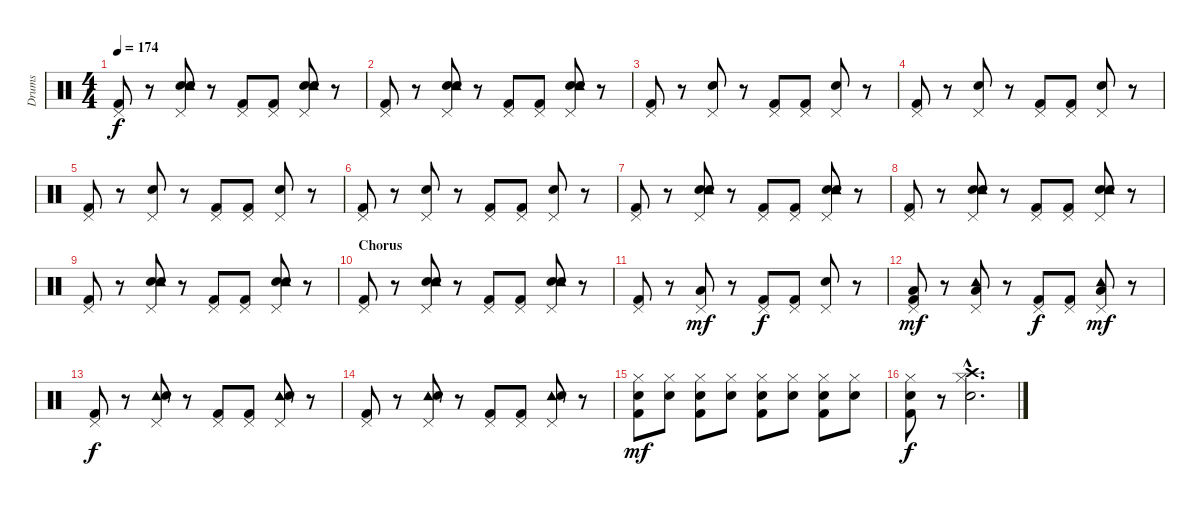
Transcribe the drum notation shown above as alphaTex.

\track ("Drums" "Drums") {instrument percussion}
\staff {score}
\articulation defaults
\ts (4 4)
\tempo 174
\clef neutral
\ks c
("Pedal Hi-Hat (hit)" "Kick (hit) 2").8{dy f} r.8 ("Pedal Hi-Hat (hit)" "Hand Clap (hit)" "Tambourine (hit)" "Snare (hit) 2").8 r.8 ("Pedal Hi-Hat (hit)" "Kick (hit) 2").8 ("Pedal Hi-Hat (hit)" "Kick (hit) 2").8 ("Pedal Hi-Hat (hit)" "Hand Clap (hit)" "Tambourine (hit)" "Snare (hit) 2").8 r.8 |
("Pedal Hi-Hat (hit)" "Kick (hit) 2").8 r.8 ("Pedal Hi-Hat (hit)" "Hand Clap (hit)" "Tambourine (hit)" "Snare (hit) 2").8 r.8 ("Pedal Hi-Hat (hit)" "Kick (hit) 2").8 ("Pedal Hi-Hat (hit)" "Kick (hit) 2").8 ("Pedal Hi-Hat (hit)" "Hand Clap (hit)" "Tambourine (hit)" "Snare (hit) 2").8 r.8 |
("Pedal Hi-Hat (hit)" "Kick (hit) 2").8 r.8 ("Pedal Hi-Hat (hit)" "Snare (hit) 2").8 r.8 ("Pedal Hi-Hat (hit)" "Kick (hit) 2").8 ("Pedal Hi-Hat (hit)" "Kick (hit) 2").8 ("Pedal Hi-Hat (hit)" "Snare (hit) 2").8 r.8 |
("Pedal Hi-Hat (hit)" "Kick (hit) 2").8 r.8 ("Pedal Hi-Hat (hit)" "Snare (hit) 2").8 r.8 ("Pedal Hi-Hat (hit)" "Kick (hit) 2").8 ("Pedal Hi-Hat (hit)" "Kick (hit) 2").8 ("Pedal Hi-Hat (hit)" "Snare (hit) 2").8 r.8 |
("Pedal Hi-Hat (hit)" "Kick (hit) 2").8 r.8 ("Pedal Hi-Hat (hit)" "Snare (hit) 2").8 r.8 ("Pedal Hi-Hat (hit)" "Kick (hit) 2").8 ("Pedal Hi-Hat (hit)" "Kick (hit) 2").8 ("Pedal Hi-Hat (hit)" "Snare (hit) 2").8 r.8 |
("Pedal Hi-Hat (hit)" "Kick (hit) 2").8 r.8 ("Pedal Hi-Hat (hit)" "Snare (hit) 2").8 r.8 ("Pedal Hi-Hat (hit)" "Kick (hit) 2").8 ("Pedal Hi-Hat (hit)" "Kick (hit) 2").8 ("Pedal Hi-Hat (hit)" "Snare (hit) 2").8 r.8 |
("Pedal Hi-Hat (hit)" "Kick (hit) 2").8 r.8 ("Pedal Hi-Hat (hit)" "Hand Clap (hit)" "Tambourine (hit)" "Snare (hit) 2").8 r.8 ("Pedal Hi-Hat (hit)" "Kick (hit) 2").8 ("Pedal Hi-Hat (hit)" "Kick (hit) 2").8 ("Pedal Hi-Hat (hit)" "Hand Clap (hit)" "Tambourine (hit)" "Snare (hit) 2").8 r.8 |
("Pedal Hi-Hat (hit)" "Kick (hit) 2").8 r.8 ("Pedal Hi-Hat (hit)" "Hand Clap (hit)" "Tambourine (hit)" "Snare (hit) 2").8 r.8 ("Pedal Hi-Hat (hit)" "Kick (hit) 2").8 ("Pedal Hi-Hat (hit)" "Kick (hit) 2").8 ("Pedal Hi-Hat (hit)" "Hand Clap (hit)" "Tambourine (hit)" "Snare (hit) 2").8 r.8 |
("Pedal Hi-Hat (hit)" "Kick (hit) 2").8 r.8 ("Pedal Hi-Hat (hit)" "Hand Clap (hit)" "Tambourine (hit)" "Snare (hit) 2").8 r.8 ("Pedal Hi-Hat (hit)" "Kick (hit) 2").8 ("Pedal Hi-Hat (hit)" "Kick (hit) 2").8 ("Pedal Hi-Hat (hit)" "Hand Clap (hit)" "Tambourine (hit)" "Snare (hit) 2").8 r.8 |
\section ("" "Chorus")
("Pedal Hi-Hat (hit)" "Kick (hit) 2").8 r.8 ("Pedal Hi-Hat (hit)" "Hand Clap (hit)" "Tambourine (hit)" "Snare (hit) 2").8 r.8 ("Pedal Hi-Hat (hit)" "Kick (hit) 2").8 ("Pedal Hi-Hat (hit)" "Kick (hit) 2").8 ("Pedal Hi-Hat (hit)" "Hand Clap (hit)" "Tambourine (hit)" "Snare (hit) 2").8 r.8 |
("Pedal Hi-Hat (hit)" "Kick (hit) 2").8 r.8 ("Pedal Hi-Hat (hit)" "Low Floor Tom (hit)").8{dy mf} r.8 ("Pedal Hi-Hat (hit)" "Kick (hit) 2").8{dy f} ("Pedal Hi-Hat (hit)" "Kick (hit) 2").8 ("Pedal Hi-Hat (hit)" "Snare (hit) 2").8 r.8 |
("Pedal Hi-Hat (hit)" "Low Floor Tom (hit)" "Kick (hit) 2").8{dy mf} r.8 ("Pedal Hi-Hat (hit)" "Tambourine (hit)" "Low Floor Tom (hit)").8 r.8 ("Pedal Hi-Hat (hit)" "Kick (hit) 2").8{dy f} ("Pedal Hi-Hat (hit)" "Kick (hit) 2").8 ("Pedal Hi-Hat (hit)" "Tambourine (hit)" "Low Floor Tom (hit)").8{dy mf} r.8 |
("Pedal Hi-Hat (hit)" "Kick (hit) 2").8{dy f} r.8 ("Pedal Hi-Hat (hit)" "Tambourine (hit)" "Snare (hit) 2").8 r.8 ("Pedal Hi-Hat (hit)" "Kick (hit) 2").8 ("Pedal Hi-Hat (hit)" "Kick (hit) 2").8 ("Pedal Hi-Hat (hit)" "Tambourine (hit)" "Snare (hit) 2").8 r.8 |
("Pedal Hi-Hat (hit)" "Kick (hit) 2").8 r.8 ("Pedal Hi-Hat (hit)" "Tambourine (hit)" "Snare (hit) 2").8 r.8 ("Pedal Hi-Hat (hit)" "Kick (hit) 2").8 ("Pedal Hi-Hat (hit)" "Kick (hit) 2").8 ("Pedal Hi-Hat (hit)" "Tambourine (hit)" "Snare (hit) 2").8 r.8 |
("Hi-Hat (closed)" "Snare (hit) 2" "Kick (hit) 2").8{dy mf} ("Hi-Hat (closed)" "Snare (hit) 2").8 ("Hi-Hat (closed)" "Snare (hit) 2" "Kick (hit) 2").8 ("Hi-Hat (closed)" "Snare (hit) 2").8 ("Hi-Hat (closed)" "Snare (hit) 2" "Kick (hit) 2").8 ("Hi-Hat (closed)" "Snare (hit) 2").8 ("Hi-Hat (closed)" "Snare (hit) 2" "Kick (hit) 2").8 ("Hi-Hat (closed)" "Snare (hit) 2").8 |
("Hi-Hat (closed)" "Snare (hit) 2" "Kick (hit) 2").8{dy f} r.8 ("Crash high (hit)"{hac} "Hi-Hat (closed)"{hac} "Snare (hit) 2"{hac}).2{d}
